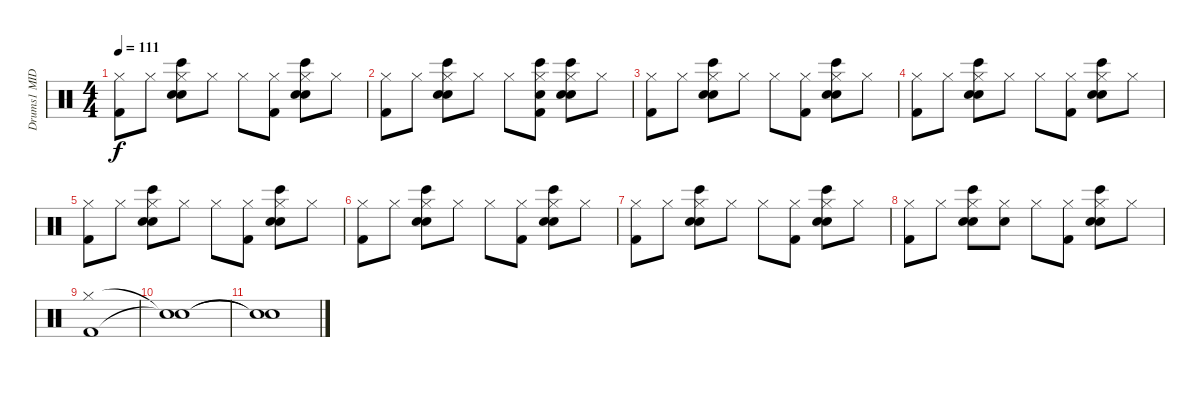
\track ("Drums1 MIDI" "Drums1 MID") {instrument percussion}
\staff {score}
\articulation defaults
\ts (4 4)
\tempo 111
\clef neutral
\ks c
("Hi-Hat (closed)" "Kick (hit) 2").8{dy f} "Hi-Hat (closed)".8 ("Hi-Hat (closed)" "Bongo High (hit)" "Hand Clap (hit)" "Snare (hit) 2").8 "Hi-Hat (closed)".8 "Hi-Hat (closed)".8 ("Hi-Hat (closed)" "Kick (hit) 2").8 ("Hi-Hat (closed)" "Bongo High (hit)" "Hand Clap (hit)" "Snare (hit) 2").8 "Hi-Hat (closed)".8 |
("Hi-Hat (closed)" "Kick (hit) 2").8 "Hi-Hat (closed)".8 ("Hi-Hat (closed)" "Bongo High (hit)" "Hand Clap (hit)" "Snare (hit) 2").8 "Hi-Hat (closed)".8 "Hi-Hat (closed)".8 ("Hi-Hat (closed)" "Bongo High (hit)" "Hand Clap (hit)" "Kick (hit) 2").8 ("Hi-Hat (closed)" "Bongo High (hit)" "Hand Clap (hit)" "Snare (hit) 2").8 "Hi-Hat (closed)".8 |
("Hi-Hat (closed)" "Kick (hit) 2").8{volume 5} "Hi-Hat (closed)".8 ("Hi-Hat (closed)" "Bongo High (hit)" "Hand Clap (hit)" "Snare (hit) 2").8 "Hi-Hat (closed)".8 "Hi-Hat (closed)".8 ("Hi-Hat (closed)" "Kick (hit) 2").8 ("Hi-Hat (closed)" "Bongo High (hit)" "Hand Clap (hit)" "Snare (hit) 2").8 "Hi-Hat (closed)".8 |
("Hi-Hat (closed)" "Kick (hit) 2").8 "Hi-Hat (closed)".8 ("Hi-Hat (closed)" "Bongo High (hit)" "Hand Clap (hit)" "Snare (hit) 2").8 "Hi-Hat (closed)".8 "Hi-Hat (closed)".8 ("Hi-Hat (closed)" "Kick (hit) 2").8 ("Hi-Hat (closed)" "Bongo High (hit)" "Hand Clap (hit)" "Snare (hit) 2").8 "Hi-Hat (closed)".8 |
("Hi-Hat (closed)" "Kick (hit) 2").8 "Hi-Hat (closed)".8 ("Hi-Hat (closed)" "Bongo High (hit)" "Hand Clap (hit)" "Snare (hit) 2").8 "Hi-Hat (closed)".8 "Hi-Hat (closed)".8 ("Hi-Hat (closed)" "Kick (hit) 2").8 ("Hi-Hat (closed)" "Bongo High (hit)" "Hand Clap (hit)" "Snare (hit) 2").8 "Hi-Hat (closed)".8 |
("Hi-Hat (closed)" "Kick (hit) 2").8 "Hi-Hat (closed)".8 ("Hi-Hat (closed)" "Bongo High (hit)" "Hand Clap (hit)" "Snare (hit) 2").8 "Hi-Hat (closed)".8 "Hi-Hat (closed)".8 ("Hi-Hat (closed)" "Kick (hit) 2").8 ("Hi-Hat (closed)" "Bongo High (hit)" "Hand Clap (hit)" "Snare (hit) 2").8 "Hi-Hat (closed)".8 |
("Hi-Hat (closed)" "Kick (hit) 2").8 "Hi-Hat (closed)".8 ("Hi-Hat (closed)" "Bongo High (hit)" "Hand Clap (hit)" "Snare (hit) 2").8 "Hi-Hat (closed)".8 "Hi-Hat (closed)".8 ("Hi-Hat (closed)" "Kick (hit) 2").8 ("Hi-Hat (closed)" "Bongo High (hit)" "Hand Clap (hit)" "Snare (hit) 2").8 "Hi-Hat (closed)".8 |
("Hi-Hat (closed)" "Kick (hit) 2").8 "Hi-Hat (closed)".8 ("Hi-Hat (closed)" "Bongo High (hit)" "Hand Clap (hit)" "Snare (hit) 2").8 ("Hi-Hat (closed)" "Hand Clap (hit)").8 "Hi-Hat (closed)".8 ("Hi-Hat (closed)" "Kick (hit) 2").8 ("Hi-Hat (closed)" "Bongo High (hit)" "Hand Clap (hit)" "Snare (hit) 2").8 "Hi-Hat (closed)".8 |
("Hi-Hat (closed)" "Kick (hit) 2").1 |
("Snare (hit)"{t} "Snare (hit)"{t}).1 |
("Snare (hit)"{t} "Snare (hit)"{t}).1
